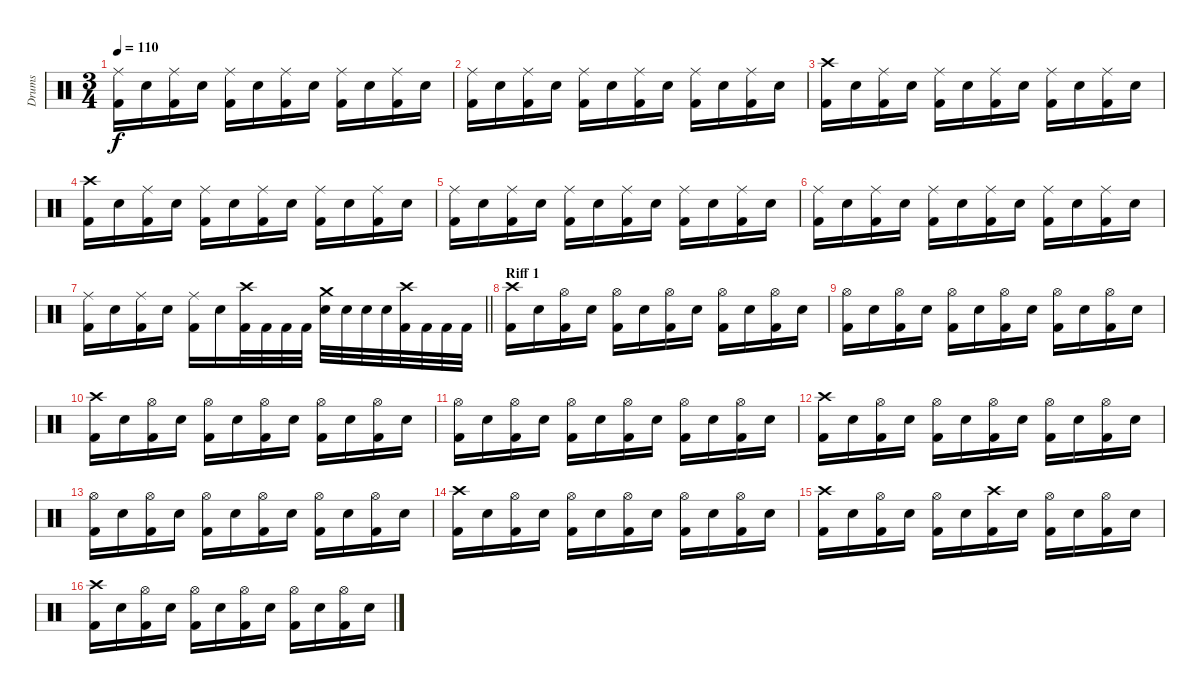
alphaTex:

\track ("Drums" "Drums") {instrument percussion}
\staff {score}
\articulation defaults
\ts (3 4)
\tempo 110
\clef neutral
\ks c
("Ride (middle)" "Kick (hit) 2").16{dy f} "Electric Snare (hit)".16 ("Ride (middle)" "Kick (hit) 2").16 "Electric Snare (hit)".16 ("Ride (middle)" "Kick (hit) 2").16 "Electric Snare (hit)".16 ("Ride (middle)" "Kick (hit) 2").16 "Electric Snare (hit)".16 ("Ride (middle)" "Kick (hit) 2").16 "Electric Snare (hit)".16 ("Ride (middle)" "Kick (hit) 2").16 "Electric Snare (hit)".16 |
("Ride (middle)" "Kick (hit) 2").16 "Electric Snare (hit)".16 ("Ride (middle)" "Kick (hit) 2").16 "Electric Snare (hit)".16 ("Ride (middle)" "Kick (hit) 2").16 "Electric Snare (hit)".16 ("Ride (middle)" "Kick (hit) 2").16 "Electric Snare (hit)".16 ("Ride (middle)" "Kick (hit) 2").16 "Electric Snare (hit)".16 ("Ride (middle)" "Kick (hit) 2").16 "Electric Snare (hit)".16 |
("Crash high (hit)" "Kick (hit) 2").16 "Electric Snare (hit)".16 ("Ride (middle)" "Kick (hit) 2").16 "Electric Snare (hit)".16 ("Ride (middle)" "Kick (hit) 2").16 "Electric Snare (hit)".16 ("Ride (middle)" "Kick (hit) 2").16 "Electric Snare (hit)".16 ("Ride (middle)" "Kick (hit) 2").16 "Electric Snare (hit)".16 ("Ride (middle)" "Kick (hit) 2").16 "Electric Snare (hit)".16 |
("Crash high (hit)" "Kick (hit) 2").16 "Electric Snare (hit)".16 ("Ride (middle)" "Kick (hit) 2").16 "Electric Snare (hit)".16 ("Ride (middle)" "Kick (hit) 2").16 "Electric Snare (hit)".16 ("Ride (middle)" "Kick (hit) 2").16 "Electric Snare (hit)".16 ("Ride (middle)" "Kick (hit) 2").16 "Electric Snare (hit)".16 ("Ride (middle)" "Kick (hit) 2").16 "Electric Snare (hit)".16 |
("Ride (middle)" "Kick (hit) 2").16 "Electric Snare (hit)".16 ("Ride (middle)" "Kick (hit) 2").16 "Electric Snare (hit)".16 ("Ride (middle)" "Kick (hit) 2").16 "Electric Snare (hit)".16 ("Ride (middle)" "Kick (hit) 2").16 "Electric Snare (hit)".16 ("Ride (middle)" "Kick (hit) 2").16 "Electric Snare (hit)".16 ("Ride (middle)" "Kick (hit) 2").16 "Electric Snare (hit)".16 |
("Ride (middle)" "Kick (hit) 2").16 "Electric Snare (hit)".16 ("Ride (middle)" "Kick (hit) 2").16 "Electric Snare (hit)".16 ("Ride (middle)" "Kick (hit) 2").16 "Electric Snare (hit)".16 ("Ride (middle)" "Kick (hit) 2").16 "Electric Snare (hit)".16 ("Ride (middle)" "Kick (hit) 2").16 "Electric Snare (hit)".16 ("Ride (middle)" "Kick (hit) 2").16 "Electric Snare (hit)".16 |
\barLineRight lightlight
("Ride (middle)" "Kick (hit) 2").16 "Electric Snare (hit)".16 ("Ride (middle)" "Kick (hit) 2").16 "Electric Snare (hit)".16 ("Ride (middle)" "Kick (hit) 2").16 "Electric Snare (hit)".16 ("Crash high (hit)" "Kick (hit) 2").32 "Kick (hit) 2".32 "Kick (hit) 2".32 "Kick (hit) 2".32 ("Crash medium (hit)" "Electric Snare (hit)").32 "Electric Snare (hit)".32 "Electric Snare (hit)".32 "Electric Snare (hit)".32 ("Crash high (hit)" "Kick (hit) 2").32 "Kick (hit) 2".32 "Kick (hit) 2".32 "Kick (hit) 2".32 |
\section ("" "Riff 1")
("Crash high (hit)" "Kick (hit) 2").16 "Electric Snare (hit)".16 ("Hi-Hat (open)" "Kick (hit) 2").16 "Electric Snare (hit)".16 ("Hi-Hat (open)" "Kick (hit) 2").16 "Electric Snare (hit)".16 ("Hi-Hat (open)" "Kick (hit) 2").16 "Electric Snare (hit)".16 ("Hi-Hat (open)" "Kick (hit) 2").16 "Electric Snare (hit)".16 ("Hi-Hat (open)" "Kick (hit) 2").16 "Electric Snare (hit)".16 |
("Hi-Hat (open)" "Kick (hit) 2").16 "Electric Snare (hit)".16 ("Hi-Hat (open)" "Kick (hit) 2").16 "Electric Snare (hit)".16 ("Hi-Hat (open)" "Kick (hit) 2").16 "Electric Snare (hit)".16 ("Hi-Hat (open)" "Kick (hit) 2").16 "Electric Snare (hit)".16 ("Hi-Hat (open)" "Kick (hit) 2").16 "Electric Snare (hit)".16 ("Hi-Hat (open)" "Kick (hit) 2").16 "Electric Snare (hit)".16 |
("Crash high (hit)" "Kick (hit) 2").16 "Electric Snare (hit)".16 ("Hi-Hat (open)" "Kick (hit) 2").16 "Electric Snare (hit)".16 ("Hi-Hat (open)" "Kick (hit) 2").16 "Electric Snare (hit)".16 ("Hi-Hat (open)" "Kick (hit) 2").16 "Electric Snare (hit)".16 ("Hi-Hat (open)" "Kick (hit) 2").16 "Electric Snare (hit)".16 ("Hi-Hat (open)" "Kick (hit) 2").16 "Electric Snare (hit)".16 |
("Hi-Hat (open)" "Kick (hit) 2").16 "Electric Snare (hit)".16 ("Hi-Hat (open)" "Kick (hit) 2").16 "Electric Snare (hit)".16 ("Hi-Hat (open)" "Kick (hit) 2").16 "Electric Snare (hit)".16 ("Hi-Hat (open)" "Kick (hit) 2").16 "Electric Snare (hit)".16 ("Hi-Hat (open)" "Kick (hit) 2").16 "Electric Snare (hit)".16 ("Hi-Hat (open)" "Kick (hit) 2").16 "Electric Snare (hit)".16 |
("Crash high (hit)" "Kick (hit) 2").16 "Electric Snare (hit)".16 ("Hi-Hat (open)" "Kick (hit) 2").16 "Electric Snare (hit)".16 ("Hi-Hat (open)" "Kick (hit) 2").16 "Electric Snare (hit)".16 ("Hi-Hat (open)" "Kick (hit) 2").16 "Electric Snare (hit)".16 ("Hi-Hat (open)" "Kick (hit) 2").16 "Electric Snare (hit)".16 ("Hi-Hat (open)" "Kick (hit) 2").16 "Electric Snare (hit)".16 |
("Hi-Hat (open)" "Kick (hit) 2").16 "Electric Snare (hit)".16 ("Hi-Hat (open)" "Kick (hit) 2").16 "Electric Snare (hit)".16 ("Hi-Hat (open)" "Kick (hit) 2").16 "Electric Snare (hit)".16 ("Hi-Hat (open)" "Kick (hit) 2").16 "Electric Snare (hit)".16 ("Hi-Hat (open)" "Kick (hit) 2").16 "Electric Snare (hit)".16 ("Hi-Hat (open)" "Kick (hit) 2").16 "Electric Snare (hit)".16 |
("Crash high (hit)" "Kick (hit) 2").16 "Electric Snare (hit)".16 ("Hi-Hat (open)" "Kick (hit) 2").16 "Electric Snare (hit)".16 ("Hi-Hat (open)" "Kick (hit) 2").16 "Electric Snare (hit)".16 ("Hi-Hat (open)" "Kick (hit) 2").16 "Electric Snare (hit)".16 ("Hi-Hat (open)" "Kick (hit) 2").16 "Electric Snare (hit)".16 ("Hi-Hat (open)" "Kick (hit) 2").16 "Electric Snare (hit)".16 |
("Crash high (hit)" "Kick (hit) 2").16 "Electric Snare (hit)".16 ("Hi-Hat (open)" "Kick (hit) 2").16 "Electric Snare (hit)".16 ("Hi-Hat (open)" "Kick (hit) 2").16 "Electric Snare (hit)".16 ("Crash high (hit)" "Kick (hit) 2").16 "Electric Snare (hit)".16 ("Hi-Hat (open)" "Kick (hit) 2").16 "Electric Snare (hit)".16 ("Hi-Hat (open)" "Kick (hit) 2").16 "Electric Snare (hit)".16 |
("Crash high (hit)" "Kick (hit) 2").16 "Electric Snare (hit)".16 ("Hi-Hat (open)" "Kick (hit) 2").16 "Electric Snare (hit)".16 ("Hi-Hat (open)" "Kick (hit) 2").16 "Electric Snare (hit)".16 ("Hi-Hat (open)" "Kick (hit) 2").16 "Electric Snare (hit)".16 ("Hi-Hat (open)" "Kick (hit) 2").16 "Electric Snare (hit)".16 ("Hi-Hat (open)" "Kick (hit) 2").16 "Electric Snare (hit)".16
